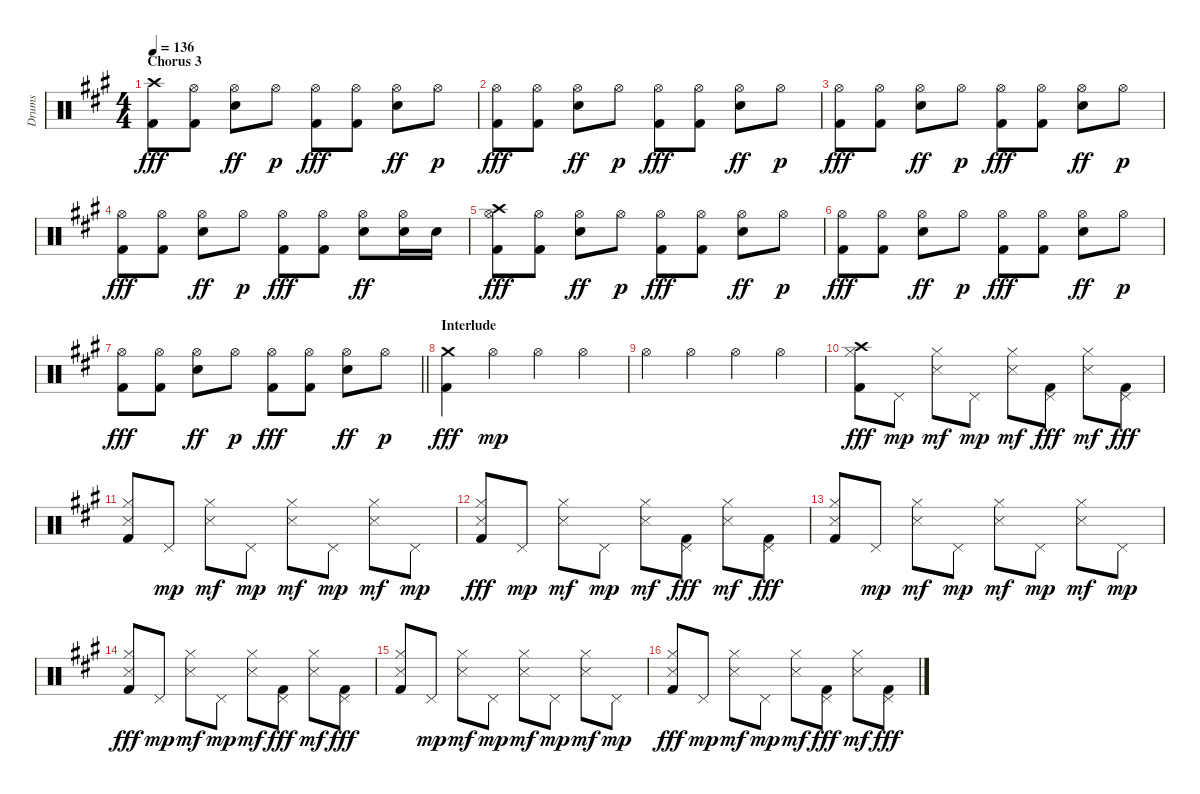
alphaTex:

\track ("Drums" "Drums") {instrument percussion}
\staff {score}
\articulation defaults
\ts (4 4)
\section ("" "Chorus 3")
\tempo 136
\clef neutral
\ks f#minor
("Crash high (hit)" "Kick (hit) 2").8{dy fff} ("Hi-Hat (open)" "Kick (hit) 2").8 ("Hi-Hat (open)" "Electric Snare (hit)").8{dy ff} "Hi-Hat (open)".8{dy p} ("Hi-Hat (open)" "Kick (hit) 2").8{dy fff} ("Hi-Hat (open)" "Kick (hit) 2").8 ("Hi-Hat (open)" "Electric Snare (hit)").8{dy ff} "Hi-Hat (open)".8{dy p} |
("Hi-Hat (open)" "Kick (hit) 2").8{dy fff} ("Hi-Hat (open)" "Kick (hit) 2").8 ("Hi-Hat (open)" "Electric Snare (hit)").8{dy ff} "Hi-Hat (open)".8{dy p} ("Hi-Hat (open)" "Kick (hit) 2").8{dy fff} ("Hi-Hat (open)" "Kick (hit) 2").8 ("Hi-Hat (open)" "Electric Snare (hit)").8{dy ff} "Hi-Hat (open)".8{dy p} |
("Hi-Hat (open)" "Kick (hit) 2").8{dy fff} ("Hi-Hat (open)" "Kick (hit) 2").8 ("Hi-Hat (open)" "Electric Snare (hit)").8{dy ff} "Hi-Hat (open)".8{dy p} ("Hi-Hat (open)" "Kick (hit) 2").8{dy fff} ("Hi-Hat (open)" "Kick (hit) 2").8 ("Hi-Hat (open)" "Electric Snare (hit)").8{dy ff} "Hi-Hat (open)".8{dy p} |
("Hi-Hat (open)" "Kick (hit) 2").8{dy fff} ("Hi-Hat (open)" "Kick (hit) 2").8 ("Hi-Hat (open)" "Electric Snare (hit)").8{dy ff} "Hi-Hat (open)".8{dy p} ("Hi-Hat (open)" "Kick (hit) 2").8{dy fff} ("Hi-Hat (open)" "Kick (hit) 2").8 ("Hi-Hat (open)" "Electric Snare (hit)").8{dy ff} ("Hi-Hat (open)" "Electric Snare (hit)").16 "Electric Snare (hit)".16 |
("Crash high (hit)" "Hi-Hat (open)" "Kick (hit) 2").8{dy fff} ("Hi-Hat (open)" "Kick (hit) 2").8 ("Hi-Hat (open)" "Electric Snare (hit)").8{dy ff} "Hi-Hat (open)".8{dy p} ("Hi-Hat (open)" "Kick (hit) 2").8{dy fff} ("Hi-Hat (open)" "Kick (hit) 2").8 ("Hi-Hat (open)" "Electric Snare (hit)").8{dy ff} "Hi-Hat (open)".8{dy p} |
("Hi-Hat (open)" "Kick (hit) 2").8{dy fff} ("Hi-Hat (open)" "Kick (hit) 2").8 ("Hi-Hat (open)" "Electric Snare (hit)").8{dy ff} "Hi-Hat (open)".8{dy p} ("Hi-Hat (open)" "Kick (hit) 2").8{dy fff} ("Hi-Hat (open)" "Kick (hit) 2").8 ("Hi-Hat (open)" "Electric Snare (hit)").8{dy ff} "Hi-Hat (open)".8{dy p} |
\barLineRight lightlight
("Hi-Hat (open)" "Kick (hit) 2").8{dy fff} ("Hi-Hat (open)" "Kick (hit) 2").8 ("Hi-Hat (open)" "Electric Snare (hit)").8{dy ff} "Hi-Hat (open)".8{dy p} ("Hi-Hat (open)" "Kick (hit) 2").8{dy fff} ("Hi-Hat (open)" "Kick (hit) 2").8 ("Hi-Hat (open)" "Electric Snare (hit)").8{dy ff} "Hi-Hat (open)".8{dy p} |
\section ("" "Interlude")
("Crash medium (hit)" "Kick (hit) 2").4{dy fff} "Hi-Hat (open)".4{dy mp} "Hi-Hat (open)".4 "Hi-Hat (open)".4 |
"Hi-Hat (open)".4 "Hi-Hat (open)".4 "Hi-Hat (open)".4 "Hi-Hat (open)".4 |
("Crash high (hit)" "Hi-Hat (closed)" "Kick (hit) 2").8{dy fff} "Pedal Hi-Hat (hit)".8{dy mp} ("Hi-Hat (closed)" "Snare (side stick) 3").8{dy mf} "Pedal Hi-Hat (hit)".8{dy mp} ("Hi-Hat (closed)" "Snare (side stick) 3").8{dy mf} ("Pedal Hi-Hat (hit)" "Kick (hit) 2").8{dy fff} ("Hi-Hat (closed)" "Snare (side stick) 3").8{dy mf} ("Pedal Hi-Hat (hit)" "Kick (hit) 2").8{dy fff} |
("Hi-Hat (closed)" "Snare (side stick) 3" "Kick (hit) 2").8 "Pedal Hi-Hat (hit)".8{dy mp} ("Hi-Hat (closed)" "Snare (side stick) 3").8{dy mf} "Pedal Hi-Hat (hit)".8{dy mp} ("Hi-Hat (closed)" "Snare (side stick) 3").8{dy mf} "Pedal Hi-Hat (hit)".8{dy mp} ("Hi-Hat (closed)" "Snare (side stick) 3").8{dy mf} "Pedal Hi-Hat (hit)".8{dy mp} |
("Hi-Hat (closed)" "Snare (side stick) 3" "Kick (hit) 2").8{dy fff} "Pedal Hi-Hat (hit)".8{dy mp} ("Hi-Hat (closed)" "Snare (side stick) 3").8{dy mf} "Pedal Hi-Hat (hit)".8{dy mp} ("Hi-Hat (closed)" "Snare (side stick) 3").8{dy mf} ("Pedal Hi-Hat (hit)" "Kick (hit) 2").8{dy fff} ("Hi-Hat (closed)" "Snare (side stick) 3").8{dy mf} ("Pedal Hi-Hat (hit)" "Kick (hit) 2").8{dy fff} |
("Hi-Hat (closed)" "Snare (side stick) 3" "Kick (hit) 2").8 "Pedal Hi-Hat (hit)".8{dy mp} ("Hi-Hat (closed)" "Snare (side stick) 3").8{dy mf} "Pedal Hi-Hat (hit)".8{dy mp} ("Hi-Hat (closed)" "Snare (side stick) 3").8{dy mf} "Pedal Hi-Hat (hit)".8{dy mp} ("Hi-Hat (closed)" "Snare (side stick) 3").8{dy mf} "Pedal Hi-Hat (hit)".8{dy mp} |
("Hi-Hat (closed)" "Snare (side stick) 3" "Kick (hit) 2").8{dy fff} "Pedal Hi-Hat (hit)".8{dy mp} ("Hi-Hat (closed)" "Snare (side stick) 3").8{dy mf} "Pedal Hi-Hat (hit)".8{dy mp} ("Hi-Hat (closed)" "Snare (side stick) 3").8{dy mf} ("Pedal Hi-Hat (hit)" "Kick (hit) 2").8{dy fff} ("Hi-Hat (closed)" "Snare (side stick) 3").8{dy mf} ("Pedal Hi-Hat (hit)" "Kick (hit) 2").8{dy fff} |
("Hi-Hat (closed)" "Snare (side stick) 3" "Kick (hit) 2").8 "Pedal Hi-Hat (hit)".8{dy mp} ("Hi-Hat (closed)" "Snare (side stick) 3").8{dy mf} "Pedal Hi-Hat (hit)".8{dy mp} ("Hi-Hat (closed)" "Snare (side stick) 3").8{dy mf} "Pedal Hi-Hat (hit)".8{dy mp} ("Hi-Hat (closed)" "Snare (side stick) 3").8{dy mf} "Pedal Hi-Hat (hit)".8{dy mp} |
("Hi-Hat (closed)" "Snare (side stick) 3" "Kick (hit) 2").8{dy fff} "Pedal Hi-Hat (hit)".8{dy mp} ("Hi-Hat (closed)" "Snare (side stick) 3").8{dy mf} "Pedal Hi-Hat (hit)".8{dy mp} ("Hi-Hat (closed)" "Snare (side stick) 3").8{dy mf} ("Pedal Hi-Hat (hit)" "Kick (hit) 2").8{dy fff} ("Hi-Hat (closed)" "Snare (side stick) 3").8{dy mf} ("Pedal Hi-Hat (hit)" "Kick (hit) 2").8{dy fff}
